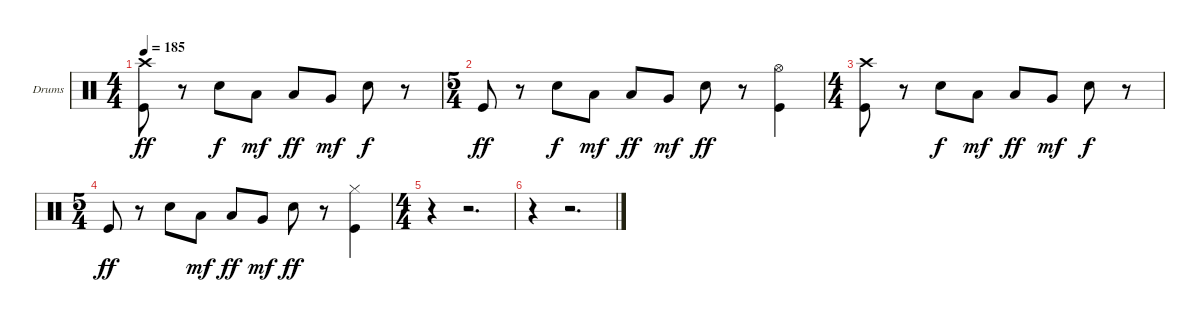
\bracketExtendMode groupsimilarinstruments
\firstSystemTrackNameOrientation horizontal
\otherSystemsTrackNameOrientation horizontal
\track ("Drumkit" "Drums") {instrument percussion}
\staff {score}
\articulation defaults
\ts (4 4)
\beaming (8 2 2 2 2)
\tempo 185
\clef neutral
\ks c
("Crash high (hit)" "Kick (hit)").8{dy ff} r.8 "Snare (hit) 2".8{dy f} "Low Tom (hit)".8{dy mf} "Low Tom (hit)".8{dy ff} "Very Low Tom (hit)".8{dy mf} "Snare (hit) 2".8{dy f} r.8 |
\ts (5 4)
\beaming (8 2 2 2 4)
"Kick (hit)".8{dy ff} r.8 "Snare (hit) 2".8{dy f} "Low Tom (hit)".8{dy mf} "Low Tom (hit)".8{dy ff} "Very Low Tom (hit)".8{dy mf} "Snare (hit) 2".8{dy ff} r.8 ("Hi-Hat (open)" "Kick (hit)").4 |
\ts (4 4)
\beaming (8 2 2 2 2)
("Crash high (hit)" "Kick (hit)").8 r.8 "Snare (hit) 2".8{dy f} "Low Tom (hit)".8{dy mf} "Low Tom (hit)".8{dy ff} "Very Low Tom (hit)".8{dy mf} "Snare (hit) 2".8{dy f} r.8 |
\ts (5 4)
\beaming (8 2 2 2 4)
"Kick (hit)".8{dy ff} r.8 "Snare (hit) 2".8 "Low Tom (hit)".8{dy mf} "Low Tom (hit)".8{dy ff} "Very Low Tom (hit)".8{dy mf} "Snare (hit) 2".8{dy ff} r.8 ("Hi-Hat (closed)" "Kick (hit)").4 |
\ts (4 4)
\beaming (8 2 2 2 2)
r.4 r.2{d} |
r.4 r.2{d}
